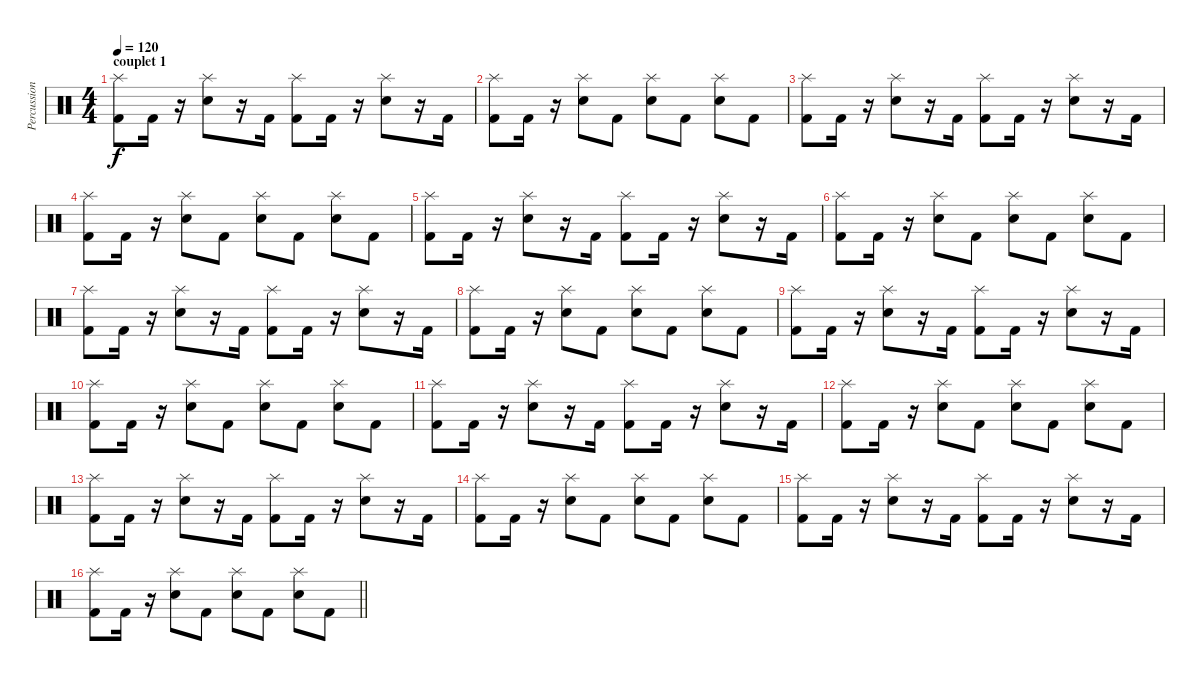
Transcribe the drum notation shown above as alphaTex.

\track ("Percussions" "Percussion") {instrument percussion}
\staff {score}
\articulation defaults
\ts (4 4)
\section ("" "couplet 1")
\tempo 120
\clef neutral
\ks c
("Splash (hit)" "Kick (hit) 2").8{dy f} "Kick (hit) 2".16 r.16 ("Splash (hit)" "Electric Snare (hit)").8 r.16 "Kick (hit) 2".16 ("Splash (hit)" "Kick (hit) 2").8 "Kick (hit) 2".16 r.16 ("Splash (hit)" "Electric Snare (hit)").8 r.16 "Kick (hit) 2".16 |
("Splash (hit)" "Kick (hit) 2").8 "Kick (hit) 2".16 r.16 ("Splash (hit)" "Electric Snare (hit)").8 "Kick (hit) 2".8 ("Splash (hit)" "Electric Snare (hit)").8 "Kick (hit) 2".8 ("Splash (hit)" "Electric Snare (hit)").8 "Kick (hit) 2".8 |
("Splash (hit)" "Kick (hit) 2").8 "Kick (hit) 2".16 r.16 ("Splash (hit)" "Electric Snare (hit)").8 r.16 "Kick (hit) 2".16 ("Splash (hit)" "Kick (hit) 2").8 "Kick (hit) 2".16 r.16 ("Splash (hit)" "Electric Snare (hit)").8 r.16 "Kick (hit) 2".16 |
("Splash (hit)" "Kick (hit) 2").8 "Kick (hit) 2".16 r.16 ("Splash (hit)" "Electric Snare (hit)").8 "Kick (hit) 2".8 ("Splash (hit)" "Electric Snare (hit)").8 "Kick (hit) 2".8 ("Splash (hit)" "Electric Snare (hit)").8 "Kick (hit) 2".8 |
("Splash (hit)" "Kick (hit) 2").8 "Kick (hit) 2".16 r.16 ("Splash (hit)" "Electric Snare (hit)").8 r.16 "Kick (hit) 2".16 ("Splash (hit)" "Kick (hit) 2").8 "Kick (hit) 2".16 r.16 ("Splash (hit)" "Electric Snare (hit)").8 r.16 "Kick (hit) 2".16 |
("Splash (hit)" "Kick (hit) 2").8 "Kick (hit) 2".16 r.16 ("Splash (hit)" "Electric Snare (hit)").8 "Kick (hit) 2".8 ("Splash (hit)" "Electric Snare (hit)").8 "Kick (hit) 2".8 ("Splash (hit)" "Electric Snare (hit)").8 "Kick (hit) 2".8 |
("Splash (hit)" "Kick (hit) 2").8 "Kick (hit) 2".16 r.16 ("Splash (hit)" "Electric Snare (hit)").8 r.16 "Kick (hit) 2".16 ("Splash (hit)" "Kick (hit) 2").8 "Kick (hit) 2".16 r.16 ("Splash (hit)" "Electric Snare (hit)").8 r.16 "Kick (hit) 2".16 |
("Splash (hit)" "Kick (hit) 2").8 "Kick (hit) 2".16 r.16 ("Splash (hit)" "Electric Snare (hit)").8 "Kick (hit) 2".8 ("Splash (hit)" "Electric Snare (hit)").8 "Kick (hit) 2".8 ("Splash (hit)" "Electric Snare (hit)").8 "Kick (hit) 2".8 |
("Splash (hit)" "Kick (hit) 2").8 "Kick (hit) 2".16 r.16 ("Splash (hit)" "Electric Snare (hit)").8 r.16 "Kick (hit) 2".16 ("Splash (hit)" "Kick (hit) 2").8 "Kick (hit) 2".16 r.16 ("Splash (hit)" "Electric Snare (hit)").8 r.16 "Kick (hit) 2".16 |
("Splash (hit)" "Kick (hit) 2").8 "Kick (hit) 2".16 r.16 ("Splash (hit)" "Electric Snare (hit)").8 "Kick (hit) 2".8 ("Splash (hit)" "Electric Snare (hit)").8 "Kick (hit) 2".8 ("Splash (hit)" "Electric Snare (hit)").8 "Kick (hit) 2".8 |
("Splash (hit)" "Kick (hit) 2").8 "Kick (hit) 2".16 r.16 ("Splash (hit)" "Electric Snare (hit)").8 r.16 "Kick (hit) 2".16 ("Splash (hit)" "Kick (hit) 2").8 "Kick (hit) 2".16 r.16 ("Splash (hit)" "Electric Snare (hit)").8 r.16 "Kick (hit) 2".16 |
("Splash (hit)" "Kick (hit) 2").8 "Kick (hit) 2".16 r.16 ("Splash (hit)" "Electric Snare (hit)").8 "Kick (hit) 2".8 ("Splash (hit)" "Electric Snare (hit)").8 "Kick (hit) 2".8 ("Splash (hit)" "Electric Snare (hit)").8 "Kick (hit) 2".8 |
("Splash (hit)" "Kick (hit) 2").8 "Kick (hit) 2".16 r.16 ("Splash (hit)" "Electric Snare (hit)").8 r.16 "Kick (hit) 2".16 ("Splash (hit)" "Kick (hit) 2").8 "Kick (hit) 2".16 r.16 ("Splash (hit)" "Electric Snare (hit)").8 r.16 "Kick (hit) 2".16 |
("Splash (hit)" "Kick (hit) 2").8 "Kick (hit) 2".16 r.16 ("Splash (hit)" "Electric Snare (hit)").8 "Kick (hit) 2".8 ("Splash (hit)" "Electric Snare (hit)").8 "Kick (hit) 2".8 ("Splash (hit)" "Electric Snare (hit)").8 "Kick (hit) 2".8 |
("Splash (hit)" "Kick (hit) 2").8 "Kick (hit) 2".16 r.16 ("Splash (hit)" "Electric Snare (hit)").8 r.16 "Kick (hit) 2".16 ("Splash (hit)" "Kick (hit) 2").8 "Kick (hit) 2".16 r.16 ("Splash (hit)" "Electric Snare (hit)").8 r.16 "Kick (hit) 2".16 |
\barLineRight lightlight
("Splash (hit)" "Kick (hit) 2").8 "Kick (hit) 2".16 r.16 ("Splash (hit)" "Electric Snare (hit)").8 "Kick (hit) 2".8 ("Splash (hit)" "Electric Snare (hit)").8 "Kick (hit) 2".8 ("Splash (hit)" "Electric Snare (hit)").8 "Kick (hit) 2".8
